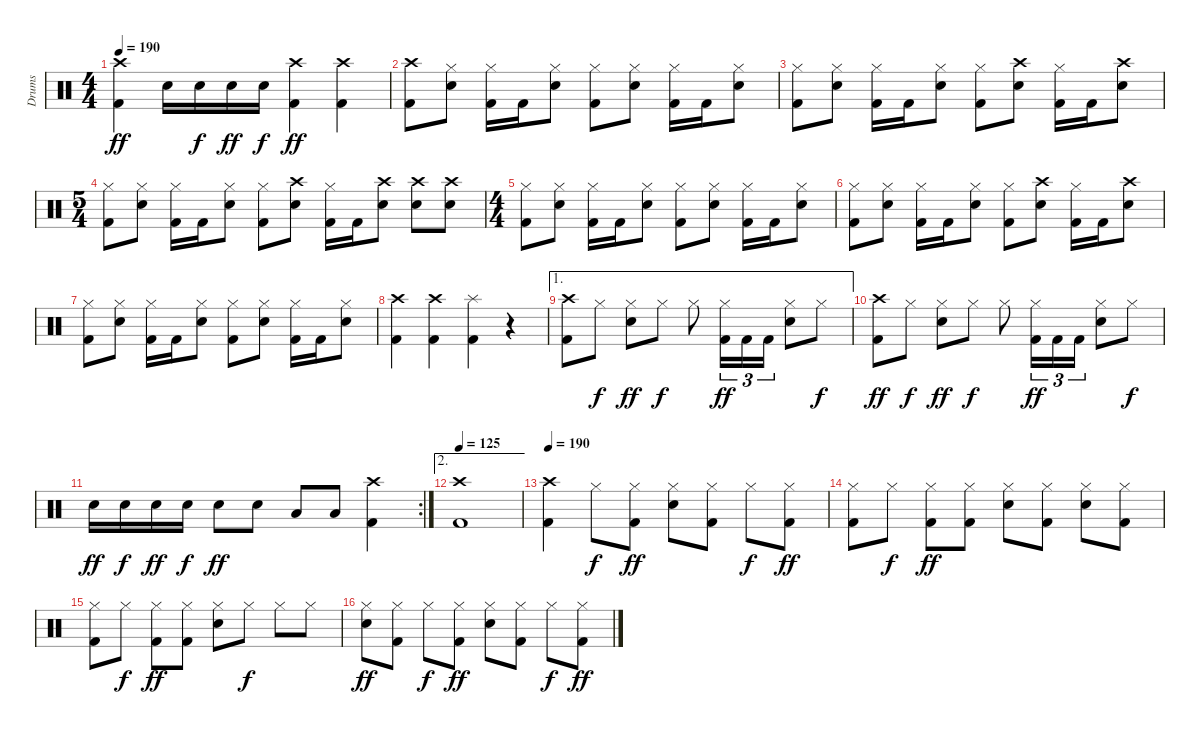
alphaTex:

\track ("Drums" "Drums") {instrument percussion}
\staff {score}
\articulation defaults
\ts (4 4)
\tempo 190
\clef neutral
\ks c
("Crash high (hit)" "Kick (hit) 2").4{dy ff} "Snare (hit) 2".16 "Snare (hit) 2".16{dy f} "Snare (hit) 2".16{dy ff} "Snare (hit) 2".16{dy f} ("Crash high (hit)" "Kick (hit) 2").4{dy ff} ("Crash high (hit)" "Kick (hit) 2").4 |
("Crash high (hit)" "Kick (hit) 2").8 ("Hi-Hat (closed)" "Snare (hit) 2").8 ("Hi-Hat (closed)" "Kick (hit) 2").16 "Kick (hit) 2".16 ("Hi-Hat (closed)" "Snare (hit) 2").8 ("Hi-Hat (closed)" "Kick (hit) 2").8 ("Hi-Hat (closed)" "Snare (hit) 2").8 ("Hi-Hat (closed)" "Kick (hit) 2").16 "Kick (hit) 2".16 ("Hi-Hat (closed)" "Snare (hit) 2").8 |
("Hi-Hat (closed)" "Kick (hit) 2").8 ("Hi-Hat (closed)" "Snare (hit) 2").8 ("Hi-Hat (closed)" "Kick (hit) 2").16 "Kick (hit) 2".16 ("Hi-Hat (closed)" "Snare (hit) 2").8 ("Hi-Hat (closed)" "Kick (hit) 2").8 ("Crash high (hit)" "Snare (hit) 2").8 ("Hi-Hat (closed)" "Kick (hit) 2").16 "Kick (hit) 2".16 ("Crash high (hit)" "Snare (hit) 2").8 |
\ts (5 4)
("Hi-Hat (closed)" "Kick (hit) 2").8 ("Hi-Hat (closed)" "Snare (hit) 2").8 ("Hi-Hat (closed)" "Kick (hit) 2").16 "Kick (hit) 2".16 ("Hi-Hat (closed)" "Snare (hit) 2").8 ("Hi-Hat (closed)" "Kick (hit) 2").8 ("Crash high (hit)" "Snare (hit) 2").8 ("Hi-Hat (closed)" "Kick (hit) 2").16 "Kick (hit) 2".16 ("Crash high (hit)" "Snare (hit) 2").8 ("Crash high (hit)" "Snare (hit) 2").8 ("Crash high (hit)" "Snare (hit) 2").8 |
\ts (4 4)
("Hi-Hat (closed)" "Kick (hit) 2").8 ("Hi-Hat (closed)" "Snare (hit) 2").8 ("Hi-Hat (closed)" "Kick (hit) 2").16 "Kick (hit) 2".16 ("Hi-Hat (closed)" "Snare (hit) 2").8 ("Hi-Hat (closed)" "Kick (hit) 2").8 ("Hi-Hat (closed)" "Snare (hit) 2").8 ("Hi-Hat (closed)" "Kick (hit) 2").16 "Kick (hit) 2".16 ("Hi-Hat (closed)" "Snare (hit) 2").8 |
("Hi-Hat (closed)" "Kick (hit) 2").8 ("Hi-Hat (closed)" "Snare (hit) 2").8 ("Hi-Hat (closed)" "Kick (hit) 2").16 "Kick (hit) 2".16 ("Hi-Hat (closed)" "Snare (hit) 2").8 ("Hi-Hat (closed)" "Kick (hit) 2").8 ("Crash high (hit)" "Snare (hit) 2").8 ("Hi-Hat (closed)" "Kick (hit) 2").16 "Kick (hit) 2".16 ("Crash high (hit)" "Snare (hit) 2").8 |
("Hi-Hat (closed)" "Kick (hit) 2").8 ("Hi-Hat (closed)" "Snare (hit) 2").8 ("Hi-Hat (closed)" "Kick (hit) 2").16 "Kick (hit) 2".16 ("Hi-Hat (closed)" "Snare (hit) 2").8 ("Hi-Hat (closed)" "Kick (hit) 2").8 ("Hi-Hat (closed)" "Snare (hit) 2").8 ("Hi-Hat (closed)" "Kick (hit) 2").16 "Kick (hit) 2".16 ("Hi-Hat (closed)" "Snare (hit) 2").8 |
("Crash high (hit)" "Kick (hit) 2").4 ("Crash high (hit)" "Kick (hit) 2").4 ("Splash (hit)" "Kick (hit) 2").4 r.4 |
\ae 1
("Crash high (hit)" "Kick (hit) 2").8 "Hi-Hat (closed)".8{dy f} ("Hi-Hat (closed)" "Snare (hit) 2").8{dy ff} "Hi-Hat (closed)".8{dy f} "Hi-Hat (closed)".8 ("Hi-Hat (closed)" "Kick (hit) 2").16{tu (3 2) dy ff} "Kick (hit) 2".16{tu (3 2)} "Kick (hit) 2".16{tu (3 2)} ("Hi-Hat (closed)" "Snare (hit) 2").8 "Hi-Hat (closed)".8{dy f} |
("Crash high (hit)" "Kick (hit) 2").8{dy ff} "Hi-Hat (closed)".8{dy f} ("Hi-Hat (closed)" "Snare (hit) 2").8{dy ff} "Hi-Hat (closed)".8{dy f} "Hi-Hat (closed)".8 ("Hi-Hat (closed)" "Kick (hit) 2").16{tu (3 2) dy ff} "Kick (hit) 2".16{tu (3 2)} "Kick (hit) 2".16{tu (3 2)} ("Hi-Hat (closed)" "Snare (hit) 2").8 "Hi-Hat (closed)".8{dy f} |
\rc 2 "Snare (hit) 2".16{dy ff} "Snare (hit) 2".16{dy f} "Snare (hit) 2".16{dy ff} "Snare (hit) 2".16{dy f} "Snare (hit) 2".8{dy ff} "Snare (hit) 2".8 "Low Floor Tom (hit)".8 "Low Floor Tom (hit)".8
("Crash high (hit)" "Kick (hit) 2").4 |
\ae 2
\tempo 125
("Crash high (hit)" "Kick (hit) 2").1 |
\tempo 190
("Crash high (hit)" "Kick (hit) 2").4 "Hi-Hat (closed)".8{dy f} ("Hi-Hat (closed)" "Kick (hit) 2").8{dy ff} ("Hi-Hat (closed)" "Snare (hit) 2").8 ("Hi-Hat (closed)" "Kick (hit) 2").8 "Hi-Hat (closed)".8{dy f} ("Hi-Hat (closed)" "Kick (hit) 2").8{dy ff} |
("Hi-Hat (closed)" "Kick (hit) 2").8 "Hi-Hat (closed)".8{dy f} ("Hi-Hat (closed)" "Kick (hit) 2").8{dy ff} ("Hi-Hat (closed)" "Kick (hit) 2").8 ("Hi-Hat (closed)" "Snare (hit) 2").8 ("Hi-Hat (closed)" "Kick (hit) 2").8 ("Hi-Hat (closed)" "Snare (hit) 2").8 ("Hi-Hat (closed)" "Kick (hit) 2").8 |
("Hi-Hat (closed)" "Kick (hit) 2").8 "Hi-Hat (closed)".8{dy f} ("Hi-Hat (closed)" "Kick (hit) 2").8{dy ff} ("Hi-Hat (closed)" "Kick (hit) 2").8 ("Hi-Hat (closed)" "Snare (hit) 2").8 "Hi-Hat (closed)".8{dy f} "Hi-Hat (closed)".8 "Hi-Hat (closed)".8 |
("Hi-Hat (closed)" "Snare (hit) 2").8{dy ff} ("Hi-Hat (closed)" "Kick (hit) 2").8 "Hi-Hat (closed)".8{dy f} ("Hi-Hat (closed)" "Kick (hit) 2").8{dy ff} ("Hi-Hat (closed)" "Snare (hit) 2").8 ("Hi-Hat (closed)" "Kick (hit) 2").8 "Hi-Hat (closed)".8{dy f} ("Hi-Hat (closed)" "Kick (hit) 2").8{dy ff}
